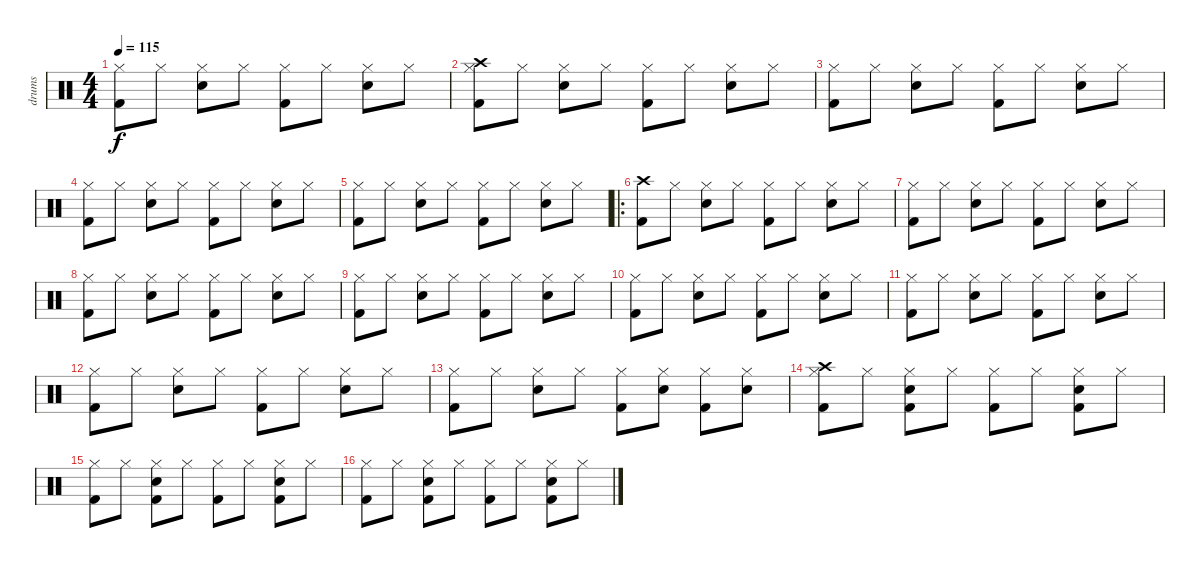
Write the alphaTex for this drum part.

\track ("drums" "drums") {instrument percussion}
\staff {score}
\articulation defaults
\ts (4 4)
\tempo 115
\clef neutral
\ks c
("Hi-Hat (closed)" "Kick (hit) 2").8{dy f} "Hi-Hat (closed)".8 ("Hi-Hat (closed)" "Electric Snare (hit)").8 "Hi-Hat (closed)".8 ("Hi-Hat (closed)" "Kick (hit) 2").8 "Hi-Hat (closed)".8 ("Hi-Hat (closed)" "Electric Snare (hit)").8 "Hi-Hat (closed)".8 |
("Hi-Hat (closed)" "Crash high (hit)" "Kick (hit) 2").8 "Hi-Hat (closed)".8 ("Hi-Hat (closed)" "Electric Snare (hit)").8 "Hi-Hat (closed)".8 ("Hi-Hat (closed)" "Kick (hit) 2").8 "Hi-Hat (closed)".8 ("Hi-Hat (closed)" "Electric Snare (hit)").8 "Hi-Hat (closed)".8 |
("Hi-Hat (closed)" "Kick (hit) 2").8 "Hi-Hat (closed)".8 ("Hi-Hat (closed)" "Electric Snare (hit)").8 "Hi-Hat (closed)".8 ("Hi-Hat (closed)" "Kick (hit) 2").8 "Hi-Hat (closed)".8 ("Hi-Hat (closed)" "Electric Snare (hit)").8 "Hi-Hat (closed)".8 |
("Hi-Hat (closed)" "Kick (hit) 2").8 "Hi-Hat (closed)".8 ("Hi-Hat (closed)" "Electric Snare (hit)").8 "Hi-Hat (closed)".8 ("Hi-Hat (closed)" "Kick (hit) 2").8 "Hi-Hat (closed)".8 ("Hi-Hat (closed)" "Electric Snare (hit)").8 "Hi-Hat (closed)".8 |
("Hi-Hat (closed)" "Kick (hit) 2").8 "Hi-Hat (closed)".8 ("Hi-Hat (closed)" "Electric Snare (hit)").8 "Hi-Hat (closed)".8 ("Hi-Hat (closed)" "Kick (hit) 2").8 "Hi-Hat (closed)".8 ("Hi-Hat (closed)" "Electric Snare (hit)").8 "Hi-Hat (closed)".8 |
\ro
("Crash high (hit)" "Kick (hit) 2").8 "Hi-Hat (closed)".8 ("Hi-Hat (closed)" "Electric Snare (hit)").8 "Hi-Hat (closed)".8 ("Hi-Hat (closed)" "Kick (hit) 2").8 "Hi-Hat (closed)".8 ("Hi-Hat (closed)" "Electric Snare (hit)").8 "Hi-Hat (closed)".8 |
("Hi-Hat (closed)" "Kick (hit) 2").8 "Hi-Hat (closed)".8 ("Hi-Hat (closed)" "Electric Snare (hit)").8 "Hi-Hat (closed)".8 ("Hi-Hat (closed)" "Kick (hit) 2").8 "Hi-Hat (closed)".8 ("Hi-Hat (closed)" "Electric Snare (hit)").8 "Hi-Hat (closed)".8 |
("Hi-Hat (closed)" "Kick (hit) 2").8 "Hi-Hat (closed)".8 ("Hi-Hat (closed)" "Electric Snare (hit)").8 "Hi-Hat (closed)".8 ("Hi-Hat (closed)" "Kick (hit) 2").8 "Hi-Hat (closed)".8 ("Hi-Hat (closed)" "Electric Snare (hit)").8 "Hi-Hat (closed)".8 |
("Hi-Hat (closed)" "Kick (hit) 2").8 "Hi-Hat (closed)".8 ("Hi-Hat (closed)" "Electric Snare (hit)").8 "Hi-Hat (closed)".8 ("Hi-Hat (closed)" "Kick (hit) 2").8 "Hi-Hat (closed)".8 ("Hi-Hat (closed)" "Electric Snare (hit)").8 "Hi-Hat (closed)".8 |
("Hi-Hat (closed)" "Kick (hit) 2").8 "Hi-Hat (closed)".8 ("Hi-Hat (closed)" "Electric Snare (hit)").8 "Hi-Hat (closed)".8 ("Hi-Hat (closed)" "Kick (hit) 2").8 "Hi-Hat (closed)".8 ("Hi-Hat (closed)" "Electric Snare (hit)").8 "Hi-Hat (closed)".8 |
("Hi-Hat (closed)" "Kick (hit) 2").8 "Hi-Hat (closed)".8 ("Hi-Hat (closed)" "Electric Snare (hit)").8 "Hi-Hat (closed)".8 ("Hi-Hat (closed)" "Kick (hit) 2").8 "Hi-Hat (closed)".8 ("Hi-Hat (closed)" "Electric Snare (hit)").8 "Hi-Hat (closed)".8 |
("Hi-Hat (closed)" "Kick (hit) 2").8 "Hi-Hat (closed)".8 ("Hi-Hat (closed)" "Electric Snare (hit)").8 "Hi-Hat (closed)".8 ("Hi-Hat (closed)" "Kick (hit) 2").8 "Hi-Hat (closed)".8 ("Hi-Hat (closed)" "Electric Snare (hit)").8 "Hi-Hat (closed)".8 |
("Hi-Hat (closed)" "Kick (hit) 2").8 "Hi-Hat (closed)".8 ("Hi-Hat (closed)" "Electric Snare (hit)").8 "Hi-Hat (closed)".8 ("Hi-Hat (closed)" "Kick (hit) 2").8 ("Hi-Hat (closed)" "Electric Snare (hit)").8 ("Hi-Hat (closed)" "Kick (hit) 2").8 ("Hi-Hat (closed)" "Electric Snare (hit)").8 |
("Hi-Hat (closed)" "Crash high (hit)" "Kick (hit) 2").8 "Hi-Hat (closed)".8 ("Hi-Hat (closed)" "Electric Snare (hit)" "Kick (hit) 2").8 "Hi-Hat (closed)".8 ("Hi-Hat (closed)" "Kick (hit) 2").8 "Hi-Hat (closed)".8 ("Hi-Hat (closed)" "Electric Snare (hit)" "Kick (hit) 2").8 "Hi-Hat (closed)".8 |
("Hi-Hat (closed)" "Kick (hit) 2").8 "Hi-Hat (closed)".8 ("Hi-Hat (closed)" "Electric Snare (hit)" "Kick (hit) 2").8 "Hi-Hat (closed)".8 ("Hi-Hat (closed)" "Kick (hit) 2").8 "Hi-Hat (closed)".8 ("Hi-Hat (closed)" "Electric Snare (hit)" "Kick (hit) 2").8 "Hi-Hat (closed)".8 |
("Hi-Hat (closed)" "Kick (hit) 2").8 "Hi-Hat (closed)".8 ("Hi-Hat (closed)" "Electric Snare (hit)" "Kick (hit) 2").8 "Hi-Hat (closed)".8 ("Hi-Hat (closed)" "Kick (hit) 2").8 "Hi-Hat (closed)".8 ("Hi-Hat (closed)" "Electric Snare (hit)" "Kick (hit) 2").8 "Hi-Hat (closed)".8
